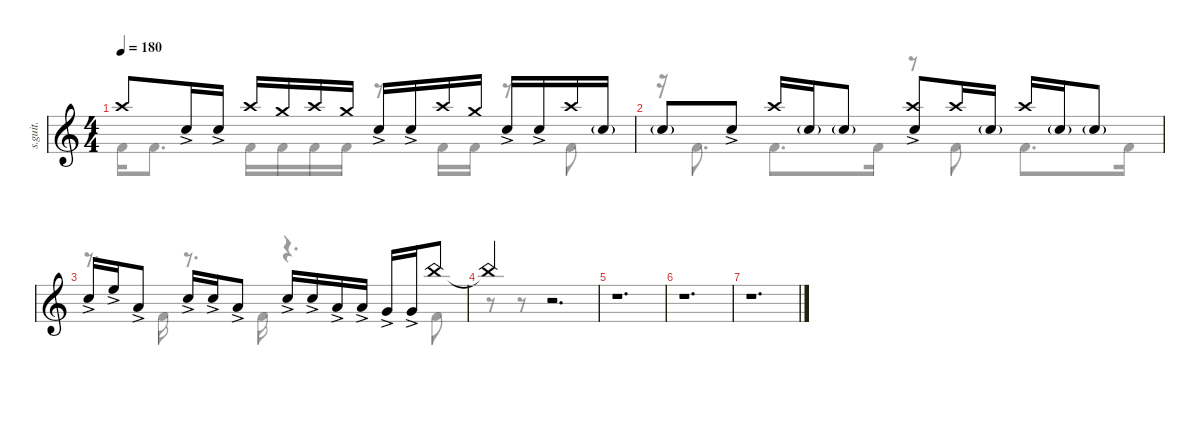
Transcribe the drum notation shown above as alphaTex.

\defaultSystemsLayout 4
\hideDynamics
\bracketExtendMode nobrackets
\track ("Percussion" "s.guit.") {instrument percussion}
\staff {score}
\articulation defaults
\voice
\ts (4 4)
\tempo 180
\clef g2
\ks c "Crash high (hit)".8{lyrics (0 "") lyrics (1 "") lyrics (2 "") lyrics (3 "") lyrics (4 "") dy f} "Snare (hit) 2"{ac}.16{lyrics (0 "") lyrics (1 "") lyrics (2 "") lyrics (3 "") lyrics (4 "")} "Snare (hit) 2"{ac}.16{lyrics (0 "") lyrics (1 "") lyrics (2 "") lyrics (3 "") lyrics (4 "")} "Crash high (hit)".16{lyrics (0 "") lyrics (1 "") lyrics (2 "") lyrics (3 "") lyrics (4 "")} "Crash medium (hit)".16{lyrics (0 "") lyrics (1 "") lyrics (2 "") lyrics (3 "") lyrics (4 "")} "Crash high (hit)".16{lyrics (0 "") lyrics (1 "") lyrics (2 "") lyrics (3 "") lyrics (4 "")} "Crash medium (hit)".16{lyrics (0 "") lyrics (1 "") lyrics (2 "") lyrics (3 "") lyrics (4 "")} "Snare (hit) 2"{ac}.16{lyrics (0 "") lyrics (1 "") lyrics (2 "") lyrics (3 "") lyrics (4 "")} "Snare (hit) 2"{ac}.16{lyrics (0 "") lyrics (1 "") lyrics (2 "") lyrics (3 "") lyrics (4 "")} "Crash high (hit)".16{lyrics (0 "") lyrics (1 "") lyrics (2 "") lyrics (3 "") lyrics (4 "")} "Crash medium (hit)".16{lyrics (0 "") lyrics (1 "") lyrics (2 "") lyrics (3 "") lyrics (4 "")} "Snare (hit) 2"{ac}.16{lyrics (0 "") lyrics (1 "") lyrics (2 "") lyrics (3 "") lyrics (4 "")} "Snare (hit) 2"{ac}.16{lyrics (0 "") lyrics (1 "") lyrics (2 "") lyrics (3 "") lyrics (4 "")} "Crash high (hit)".16{lyrics (0 "") lyrics (1 "") lyrics (2 "") lyrics (3 "") lyrics (4 "")} "Snare (hit) 2"{g}.16{lyrics (0 "") lyrics (1 "") lyrics (2 "") lyrics (3 "") lyrics (4 "")}
|
"Snare (hit) 2"{g}.8{lyrics (0 "") lyrics (1 "") lyrics (2 "") lyrics (3 "") lyrics (4 "")} "Snare (hit) 2"{ac}.8{lyrics (0 "") lyrics (1 "") lyrics (2 "") lyrics (3 "") lyrics (4 "")} "Crash high (hit)".16{lyrics (0 "") lyrics (1 "") lyrics (2 "") lyrics (3 "") lyrics (4 "")} "Snare (hit) 2"{g}.16{lyrics (0 "") lyrics (1 "") lyrics (2 "") lyrics (3 "") lyrics (4 "")} "Snare (hit) 2"{g}.8{lyrics (0 "") lyrics (1 "") lyrics (2 "") lyrics (3 "") lyrics (4 "")} ("Crash high (hit)" "Snare (hit) 2"{ac}).8{lyrics (0 "") lyrics (1 "") lyrics (2 "") lyrics (3 "") lyrics (4 "")} "Crash high (hit)".16{lyrics (0 "") lyrics (1 "") lyrics (2 "") lyrics (3 "") lyrics (4 "")} "Snare (hit) 2"{g}.16{lyrics (0 "") lyrics (1 "") lyrics (2 "") lyrics (3 "") lyrics (4 "")} "Crash high (hit)".16{lyrics (0 "") lyrics (1 "") lyrics (2 "") lyrics (3 "") lyrics (4 "")} "Snare (hit) 2"{g}.16{lyrics (0 "") lyrics (1 "") lyrics (2 "") lyrics (3 "") lyrics (4 "")} "Snare (hit) 2"{g}.8{lyrics (0 "") lyrics (1 "") lyrics (2 "") lyrics (3 "") lyrics (4 "")} |
"Snare (hit) 2"{ac}.16{lyrics (0 "") lyrics (1 "") lyrics (2 "") lyrics (3 "") lyrics (4 "")} "High Floor Tom (hit)"{ac}.16{lyrics (0 "") lyrics (1 "") lyrics (2 "") lyrics (3 "") lyrics (4 "")} "Low Tom (hit)"{ac}.8{lyrics (0 "") lyrics (1 "") lyrics (2 "") lyrics (3 "") lyrics (4 "")} "Snare (hit) 2"{ac}.16{lyrics (0 "") lyrics (1 "") lyrics (2 "") lyrics (3 "") lyrics (4 "")} "Snare (hit) 2"{ac}.16{lyrics (0 "") lyrics (1 "") lyrics (2 "") lyrics (3 "") lyrics (4 "")} "Low Tom (hit)"{ac}.8{lyrics (0 "") lyrics (1 "") lyrics (2 "") lyrics (3 "") lyrics (4 "")} "Snare (hit) 2"{ac}.16{lyrics (0 "") lyrics (1 "") lyrics (2 "") lyrics (3 "") lyrics (4 "")} "Snare (hit) 2"{ac}.16{lyrics (0 "") lyrics (1 "") lyrics (2 "") lyrics (3 "") lyrics (4 "")} "Low Tom (hit)"{ac}.16{lyrics (0 "") lyrics (1 "") lyrics (2 "") lyrics (3 "") lyrics (4 "")} "Low Tom (hit)"{ac}.16{lyrics (0 "") lyrics (1 "") lyrics (2 "") lyrics (3 "") lyrics (4 "")} "Very Low Tom (hit)"{ac}.16{lyrics (0 "") lyrics (1 "") lyrics (2 "") lyrics (3 "") lyrics (4 "")} "Very Low Tom (hit)"{ac}.16{lyrics (0 "") lyrics (1 "") lyrics (2 "") lyrics (3 "") lyrics (4 "")} "China (hit)".8{lyrics (0 "") lyrics (1 "") lyrics (2 "") lyrics (3 "") lyrics (4 "")} |
"China (hit)"{t}.4{lyrics (0 "") lyrics (1 "") lyrics (2 "") lyrics (3 "") lyrics (4 "")} r.2{d} |
r.1{d} |
r.1{d} |
r.1{d}
\voice
\clef g2
\ottava regular
\simile none
\ks c "Kick (hit) 2".16{lyrics (0 "") lyrics (1 "") lyrics (2 "") lyrics (3 "") lyrics (4 "") dy f} "Kick (hit) 2".8{d lyrics (0 "") lyrics (1 "") lyrics (2 "") lyrics (3 "") lyrics (4 "")} "Kick (hit) 2".16{lyrics (0 "") lyrics (1 "") lyrics (2 "") lyrics (3 "") lyrics (4 "")} "Kick (hit) 2".16{lyrics (0 "") lyrics (1 "") lyrics (2 "") lyrics (3 "") lyrics (4 "")} "Kick (hit) 2".16{lyrics (0 "") lyrics (1 "") lyrics (2 "") lyrics (3 "") lyrics (4 "")} "Kick (hit) 2".16{lyrics (0 "") lyrics (1 "") lyrics (2 "") lyrics (3 "") lyrics (4 "")}
r.8 "Kick (hit) 2".16{lyrics (0 "") lyrics (1 "") lyrics (2 "") lyrics (3 "") lyrics (4 "")} "Kick (hit) 2".16{lyrics (0 "") lyrics (1 "") lyrics (2 "") lyrics (3 "") lyrics (4 "")} r.8 "Kick (hit) 2".8{lyrics (0 "") lyrics (1 "") lyrics (2 "") lyrics (3 "") lyrics (4 "")} |
r.16 "Kick (hit) 2".8{d lyrics (0 "") lyrics (1 "") lyrics (2 "") lyrics (3 "") lyrics (4 "")} "Kick (hit) 2".8{d lyrics (0 "") lyrics (1 "") lyrics (2 "") lyrics (3 "") lyrics (4 "")} "Kick (hit) 2".16{lyrics (0 "") lyrics (1 "") lyrics (2 "") lyrics (3 "") lyrics (4 "")} r.8 "Kick (hit) 2".8{lyrics (0 "") lyrics (1 "") lyrics (2 "") lyrics (3 "") lyrics (4 "")} "Kick (hit) 2".8{d lyrics (0 "") lyrics (1 "") lyrics (2 "") lyrics (3 "") lyrics (4 "")} "Kick (hit) 2".16{lyrics (0 "") lyrics (1 "") lyrics (2 "") lyrics (3 "") lyrics (4 "")} |
r.8{d} "Kick (hit) 2".16{lyrics (0 "") lyrics (1 "") lyrics (2 "") lyrics (3 "") lyrics (4 "")} r.8{d} "Kick (hit) 2".16{lyrics (0 "") lyrics (1 "") lyrics (2 "") lyrics (3 "") lyrics (4 "")} r.4{d} "Kick (hit) 2".8{lyrics (0 "") lyrics (1 "") lyrics (2 "") lyrics (3 "") lyrics (4 "")} |
r.8 r.8 |
r.1 |
r.1 |
r.1
